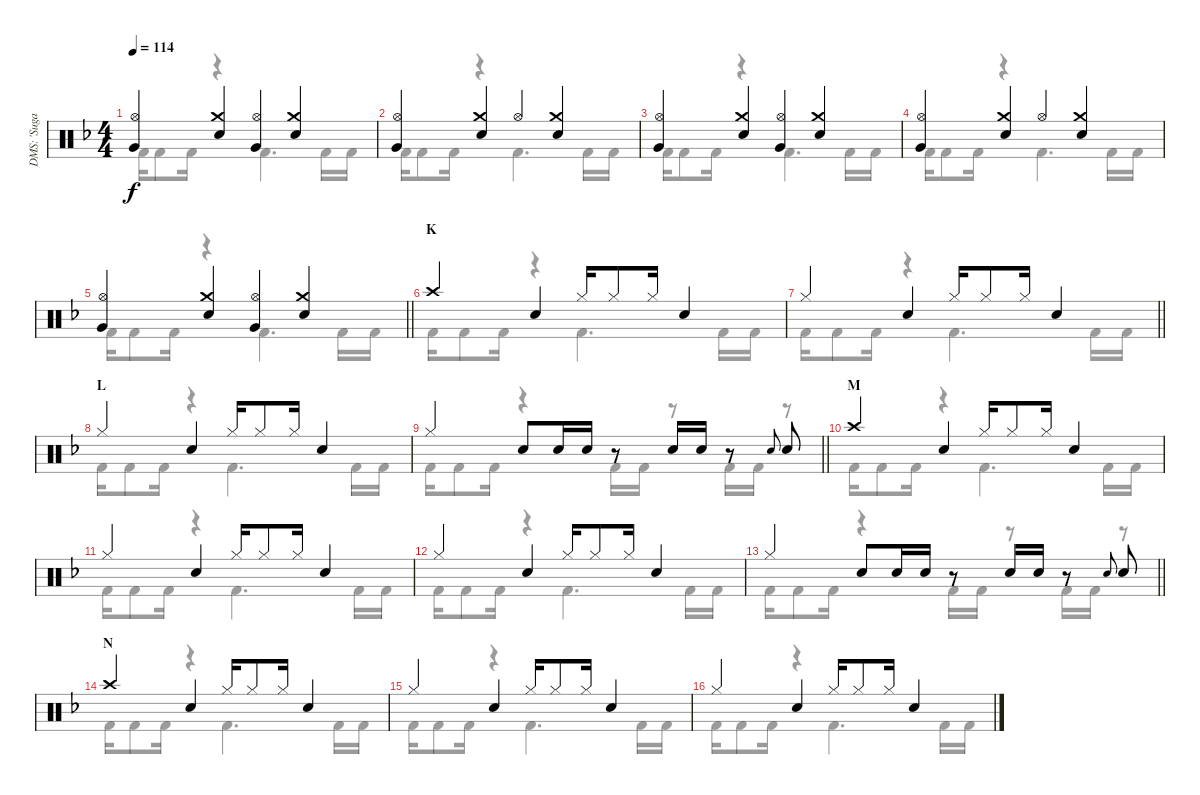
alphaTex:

\track ("DMS: 'Sugarfoot' Moffett" "DMS: 'Suga") {instrument percussion}
\staff {score}
\articulation defaults
\voice
\ts (4 4)
\tempo 114
\clef neutral
\ks f
("Hi-Hat (open)" "Very Low Tom (hit)").4{dy f} ("Crash medium (hit)" "Snare (hit) 2").4 ("Hi-Hat (open)" "Very Low Tom (hit)").4 ("Crash medium (hit)" "Snare (hit) 2").4 |
("Hi-Hat (open)" "Very Low Tom (hit)").4 ("Crash medium (hit)" "Snare (hit) 2").4 "Hi-Hat (open)".4 ("Crash medium (hit)" "Snare (hit) 2").4 |
("Hi-Hat (open)" "Very Low Tom (hit)").4 ("Crash medium (hit)" "Snare (hit) 2").4 ("Hi-Hat (open)" "Very Low Tom (hit)").4 ("Crash medium (hit)" "Snare (hit) 2").4 |
("Hi-Hat (open)" "Very Low Tom (hit)").4 ("Crash medium (hit)" "Snare (hit) 2").4 "Hi-Hat (open)".4 ("Crash medium (hit)" "Snare (hit) 2").4 |
\barLineRight lightlight
("Hi-Hat (open)" "Very Low Tom (hit)").4 ("Crash medium (hit)" "Snare (hit) 2").4 ("Hi-Hat (open)" "Very Low Tom (hit)").4 ("Crash medium (hit)" "Snare (hit) 2").4 |
\section ("" "K")
"Crash high (hit)".4 "Snare (hit) 2".4 "Hi-Hat (closed)".16 "Hi-Hat (closed)".8 "Hi-Hat (closed)".16 "Snare (hit) 2".4 |
\barLineRight lightlight "Hi-Hat (closed)".4 "Snare (hit) 2".4 "Hi-Hat (closed)".16 "Hi-Hat (closed)".8 "Hi-Hat (closed)".16 "Snare (hit) 2".4
|
\section ("" "L")
"Hi-Hat (closed)".4 "Snare (hit) 2".4 "Hi-Hat (closed)".16 "Hi-Hat (closed)".8 "Hi-Hat (closed)".16 "Snare (hit) 2".4 |
\barLineRight lightlight "Hi-Hat (closed)".4 "Snare (hit) 2".8 "Electric Snare (hit)".16 "Electric Snare (hit)".16
r.8 "Electric Snare (hit)".16 "Electric Snare (hit)".16 r.8 "Electric Snare (hit)".8{gr onbeat} "Snare (hit) 2".8 |
\section ("" "M")
"Crash high (hit)".4 "Snare (hit) 2".4 "Hi-Hat (closed)".16 "Hi-Hat (closed)".8 "Hi-Hat (closed)".16 "Snare (hit) 2".4 |
"Hi-Hat (closed)".4 "Snare (hit) 2".4 "Hi-Hat (closed)".16 "Hi-Hat (closed)".8 "Hi-Hat (closed)".16 "Snare (hit) 2".4 |
"Hi-Hat (closed)".4 "Snare (hit) 2".4 "Hi-Hat (closed)".16 "Hi-Hat (closed)".8 "Hi-Hat (closed)".16 "Snare (hit) 2".4 |
\barLineRight lightlight "Hi-Hat (closed)".4 "Snare (hit) 2".8 "Electric Snare (hit)".16 "Electric Snare (hit)".16
r.8 "Electric Snare (hit)".16 "Electric Snare (hit)".16 r.8 "Electric Snare (hit)".8{gr onbeat} "Snare (hit) 2".8 |
\section ("" "N")
"Crash high (hit)".4 "Snare (hit) 2".4 "Hi-Hat (closed)".16 "Hi-Hat (closed)".8 "Hi-Hat (closed)".16 "Snare (hit) 2".4 |
"Hi-Hat (closed)".4 "Snare (hit) 2".4 "Hi-Hat (closed)".16 "Hi-Hat (closed)".8 "Hi-Hat (closed)".16 "Snare (hit) 2".4 |
"Hi-Hat (closed)".4 "Snare (hit) 2".4 "Hi-Hat (closed)".16 "Hi-Hat (closed)".8 "Hi-Hat (closed)".16 "Snare (hit) 2".4
\voice
\clef neutral
\ottava regular
\simile none
\ks f "Kick (hit) 2".16{dy f} "Kick (hit) 2".8 "Kick (hit) 2".16
r.4 "Kick (hit) 2".4{d} "Kick (hit) 2".16 "Kick (hit) 2".16 |
"Kick (hit) 2".16 "Kick (hit) 2".8 "Kick (hit) 2".16 r.4 "Kick (hit) 2".4{d} "Kick (hit) 2".16 "Kick (hit) 2".16 |
"Kick (hit) 2".16 "Kick (hit) 2".8 "Kick (hit) 2".16 r.4 "Kick (hit) 2".4{d} "Kick (hit) 2".16 "Kick (hit) 2".16 |
"Kick (hit) 2".16 "Kick (hit) 2".8 "Kick (hit) 2".16 r.4 "Kick (hit) 2".4{d} "Kick (hit) 2".16 "Kick (hit) 2".16 |
\barLineRight lightlight "Kick (hit) 2".16 "Kick (hit) 2".8 "Kick (hit) 2".16
r.4 "Kick (hit) 2".4{d} "Kick (hit) 2".16 "Kick (hit) 2".16 |
"Kick (hit) 2".16 "Kick (hit) 2".8 "Kick (hit) 2".16 r.4 "Kick (hit) 2".4{d} "Kick (hit) 2".16 "Kick (hit) 2".16 |
\barLineRight lightlight "Kick (hit) 2".16 "Kick (hit) 2".8 "Kick (hit) 2".16
r.4 "Kick (hit) 2".4{d} "Kick (hit) 2".16 "Kick (hit) 2".16 |
"Kick (hit) 2".16 "Kick (hit) 2".8 "Kick (hit) 2".16 r.4 "Kick (hit) 2".4{d} "Kick (hit) 2".16 "Kick (hit) 2".16 |
\barLineRight lightlight "Kick (hit) 2".16 "Kick (hit) 2".8 "Kick (hit) 2".16
r.4 "Kick (hit) 2".16 "Kick (hit) 2".16 r.8 "Kick (hit) 2".16 "Kick (hit) 2".16 r.8 |
"Kick (hit) 2".16 "Kick (hit) 2".8 "Kick (hit) 2".16 r.4 "Kick (hit) 2".4{d} "Kick (hit) 2".16 "Kick (hit) 2".16 |
"Kick (hit) 2".16 "Kick (hit) 2".8 "Kick (hit) 2".16 r.4 "Kick (hit) 2".4{d} "Kick (hit) 2".16 "Kick (hit) 2".16 |
"Kick (hit) 2".16 "Kick (hit) 2".8 "Kick (hit) 2".16 r.4 "Kick (hit) 2".4{d} "Kick (hit) 2".16 "Kick (hit) 2".16 |
\barLineRight lightlight "Kick (hit) 2".16 "Kick (hit) 2".8 "Kick (hit) 2".16
r.4 "Kick (hit) 2".16 "Kick (hit) 2".16 r.8 "Kick (hit) 2".16 "Kick (hit) 2".16 r.8 |
"Kick (hit) 2".16 "Kick (hit) 2".8 "Kick (hit) 2".16 r.4 "Kick (hit) 2".4{d} "Kick (hit) 2".16 "Kick (hit) 2".16 |
"Kick (hit) 2".16 "Kick (hit) 2".8 "Kick (hit) 2".16 r.4 "Kick (hit) 2".4{d} "Kick (hit) 2".16 "Kick (hit) 2".16 |
"Kick (hit) 2".16 "Kick (hit) 2".8 "Kick (hit) 2".16 r.4 "Kick (hit) 2".4{d} "Kick (hit) 2".16 "Kick (hit) 2".16
